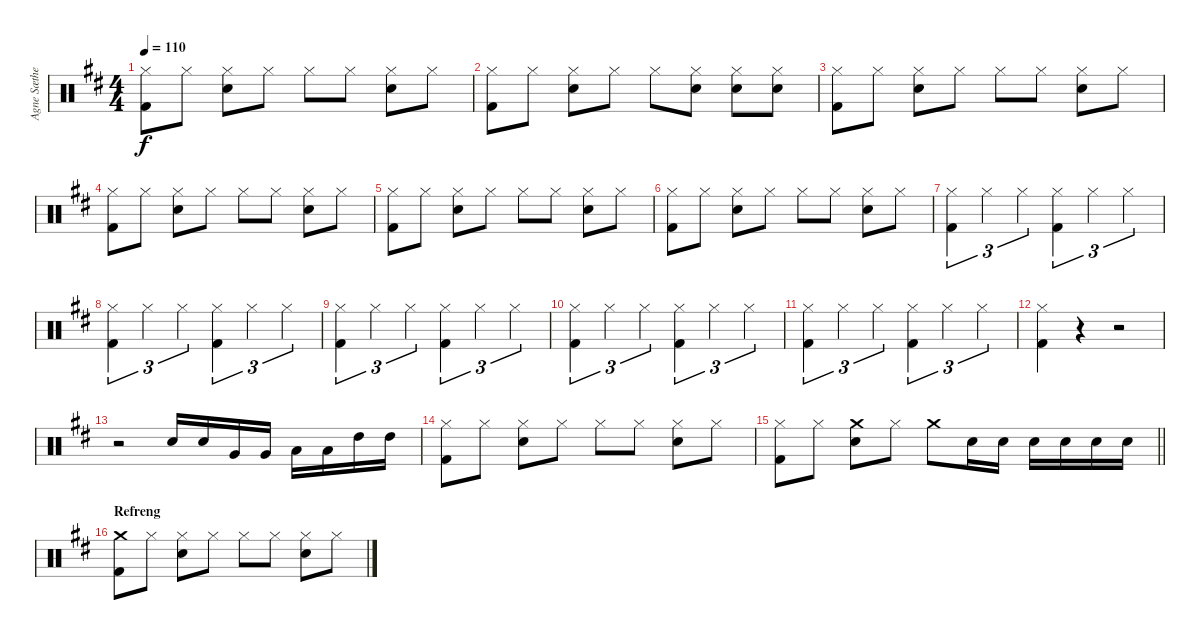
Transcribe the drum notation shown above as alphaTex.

\track ("Agne Sæther - Trommer" "Agne Sæthe") {instrument percussion}
\staff {score}
\articulation defaults
\ts (4 4)
\tempo 110
\clef neutral
\ks d
("Hi-Hat (closed)" "Kick (hit) 2").8{dy f} "Hi-Hat (closed)".8 ("Hi-Hat (closed)" "Electric Snare (hit)").8 "Hi-Hat (closed)".8 "Hi-Hat (closed)".8 "Hi-Hat (closed)".8 ("Hi-Hat (closed)" "Electric Snare (hit)").8 "Hi-Hat (closed)".8 |
("Hi-Hat (closed)" "Kick (hit) 2").8 "Hi-Hat (closed)".8 ("Hi-Hat (closed)" "Electric Snare (hit)").8 "Hi-Hat (closed)".8 "Hi-Hat (closed)".8 ("Hi-Hat (closed)" "Electric Snare (hit)").8 ("Hi-Hat (closed)" "Electric Snare (hit)").8 ("Hi-Hat (closed)" "Electric Snare (hit)").8 |
("Hi-Hat (closed)" "Kick (hit) 2").8 "Hi-Hat (closed)".8 ("Hi-Hat (closed)" "Electric Snare (hit)").8 "Hi-Hat (closed)".8 "Hi-Hat (closed)".8 "Hi-Hat (closed)".8 ("Hi-Hat (closed)" "Electric Snare (hit)").8 "Hi-Hat (closed)".8 |
("Hi-Hat (closed)" "Kick (hit) 2").8 "Hi-Hat (closed)".8 ("Hi-Hat (closed)" "Electric Snare (hit)").8 "Hi-Hat (closed)".8 "Hi-Hat (closed)".8 "Hi-Hat (closed)".8 ("Hi-Hat (closed)" "Electric Snare (hit)").8 "Hi-Hat (closed)".8 |
("Hi-Hat (closed)" "Kick (hit) 2").8 "Hi-Hat (closed)".8 ("Hi-Hat (closed)" "Electric Snare (hit)").8 "Hi-Hat (closed)".8 "Hi-Hat (closed)".8 "Hi-Hat (closed)".8 ("Hi-Hat (closed)" "Electric Snare (hit)").8 "Hi-Hat (closed)".8 |
("Hi-Hat (closed)" "Kick (hit) 2").8 "Hi-Hat (closed)".8 ("Hi-Hat (closed)" "Electric Snare (hit)").8 "Hi-Hat (closed)".8 "Hi-Hat (closed)".8 "Hi-Hat (closed)".8 ("Hi-Hat (closed)" "Electric Snare (hit)").8 "Hi-Hat (closed)".8 |
("Hi-Hat (closed)" "Kick (hit) 2").4{tu (3 2)} "Hi-Hat (closed)".4{tu (3 2)} "Hi-Hat (closed)".4{tu (3 2)} ("Hi-Hat (closed)" "Kick (hit) 2").4{tu (3 2)} "Hi-Hat (closed)".4{tu (3 2)} "Hi-Hat (closed)".4{tu (3 2)} |
("Hi-Hat (closed)" "Kick (hit) 2").4{tu (3 2)} "Hi-Hat (closed)".4{tu (3 2)} "Hi-Hat (closed)".4{tu (3 2)} ("Hi-Hat (closed)" "Kick (hit) 2").4{tu (3 2)} "Hi-Hat (closed)".4{tu (3 2)} "Hi-Hat (closed)".4{tu (3 2)} |
("Hi-Hat (closed)" "Kick (hit) 2").4{tu (3 2)} "Hi-Hat (closed)".4{tu (3 2)} "Hi-Hat (closed)".4{tu (3 2)} ("Hi-Hat (closed)" "Kick (hit) 2").4{tu (3 2)} "Hi-Hat (closed)".4{tu (3 2)} "Hi-Hat (closed)".4{tu (3 2)} |
("Hi-Hat (closed)" "Kick (hit) 2").4{tu (3 2)} "Hi-Hat (closed)".4{tu (3 2)} "Hi-Hat (closed)".4{tu (3 2)} ("Hi-Hat (closed)" "Kick (hit) 2").4{tu (3 2)} "Hi-Hat (closed)".4{tu (3 2)} "Hi-Hat (closed)".4{tu (3 2)} |
("Hi-Hat (closed)" "Kick (hit) 2").4{tu (3 2)} "Hi-Hat (closed)".4{tu (3 2)} "Hi-Hat (closed)".4{tu (3 2)} ("Hi-Hat (closed)" "Kick (hit) 2").4{tu (3 2)} "Hi-Hat (closed)".4{tu (3 2)} "Hi-Hat (closed)".4{tu (3 2)} |
("Hi-Hat (closed)" "Kick (hit) 2").4 r.4 r.2 |
r.2 "Electric Snare (hit)".16 "Electric Snare (hit)".16 "Very Low Tom (hit)".16 "Very Low Tom (hit)".16 "Low Tom (hit)".16 "Low Tom (hit)".16 "High Tom (hit)".16 "High Tom (hit)".16 |
("Hi-Hat (closed)" "Kick (hit) 2").8 "Hi-Hat (closed)".8 ("Hi-Hat (closed)" "Electric Snare (hit)").8 "Hi-Hat (closed)".8 "Hi-Hat (closed)".8 "Hi-Hat (closed)".8 ("Hi-Hat (closed)" "Electric Snare (hit)").8 "Hi-Hat (closed)".8 |
\barLineRight lightlight
("Hi-Hat (closed)" "Kick (hit) 2").8 "Hi-Hat (closed)".8 ("Crash medium (hit)" "Electric Snare (hit)").8 "Hi-Hat (closed)".8 "Crash medium (hit)".8 "Electric Snare (hit)".16 "Electric Snare (hit)".16 "Electric Snare (hit)".16 "Electric Snare (hit)".16 "Electric Snare (hit)".16 "Electric Snare (hit)".16 |
\section ("" "Refreng")
("Crash medium (hit)" "Kick (hit) 2").8 "Hi-Hat (closed)".8 ("Hi-Hat (closed)" "Electric Snare (hit)").8 "Hi-Hat (closed)".8 "Hi-Hat (closed)".8 "Hi-Hat (closed)".8 ("Hi-Hat (closed)" "Electric Snare (hit)").8 "Hi-Hat (closed)".8
